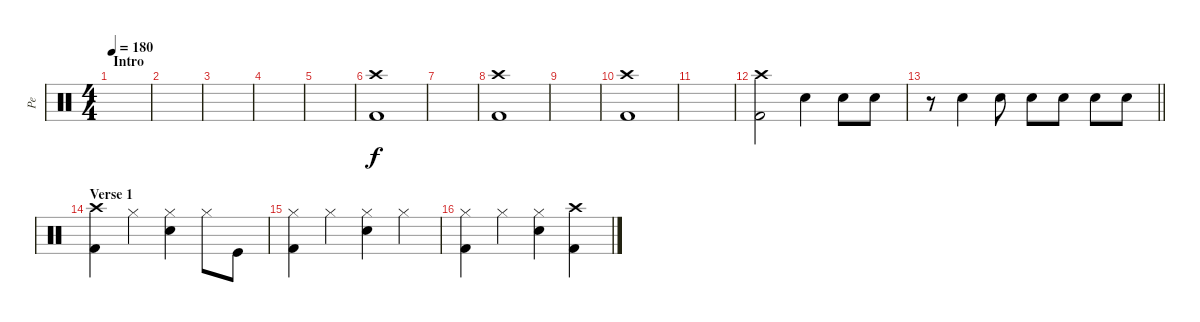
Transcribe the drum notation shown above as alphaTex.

\track ("Pe" "Pe") {instrument percussion}
\staff {score}
\articulation defaults
\ts (4 4)
\section ("" "Intro")
\tempo 180
\clef neutral
\ks c
|
|
|
|
|
("Kick (hit) 2" "Crash high (hit)").1 |
|
("Kick (hit) 2" "Crash high (hit)").1 |
|
("Kick (hit) 2" "Crash high (hit)").1 |
|
("Kick (hit) 2" "Crash high (hit)").2 "Electric Snare (hit)".4 "Electric Snare (hit)".8 "Electric Snare (hit)".8 |
\barLineRight lightlight
r.8 "Electric Snare (hit)".4 "Electric Snare (hit)".8 "Electric Snare (hit)".8 "Electric Snare (hit)".8 "Electric Snare (hit)".8 "Electric Snare (hit)".8 |
\section ("" "Verse 1")
("Kick (hit) 2" "Crash high (hit)").4 "Hi-Hat (closed)".4 ("Electric Snare (hit)" "Hi-Hat (closed)").4 "Hi-Hat (closed)".8 "Kick (hit)".8 |
("Kick (hit) 2" "Hi-Hat (closed)").4 "Hi-Hat (closed)".4 ("Electric Snare (hit)" "Hi-Hat (closed)").4 "Hi-Hat (closed)".4 |
("Kick (hit) 2" "Hi-Hat (closed)").4 "Hi-Hat (closed)".4 ("Electric Snare (hit)" "Hi-Hat (closed)").4 ("Kick (hit) 2" "Crash high (hit)").4
